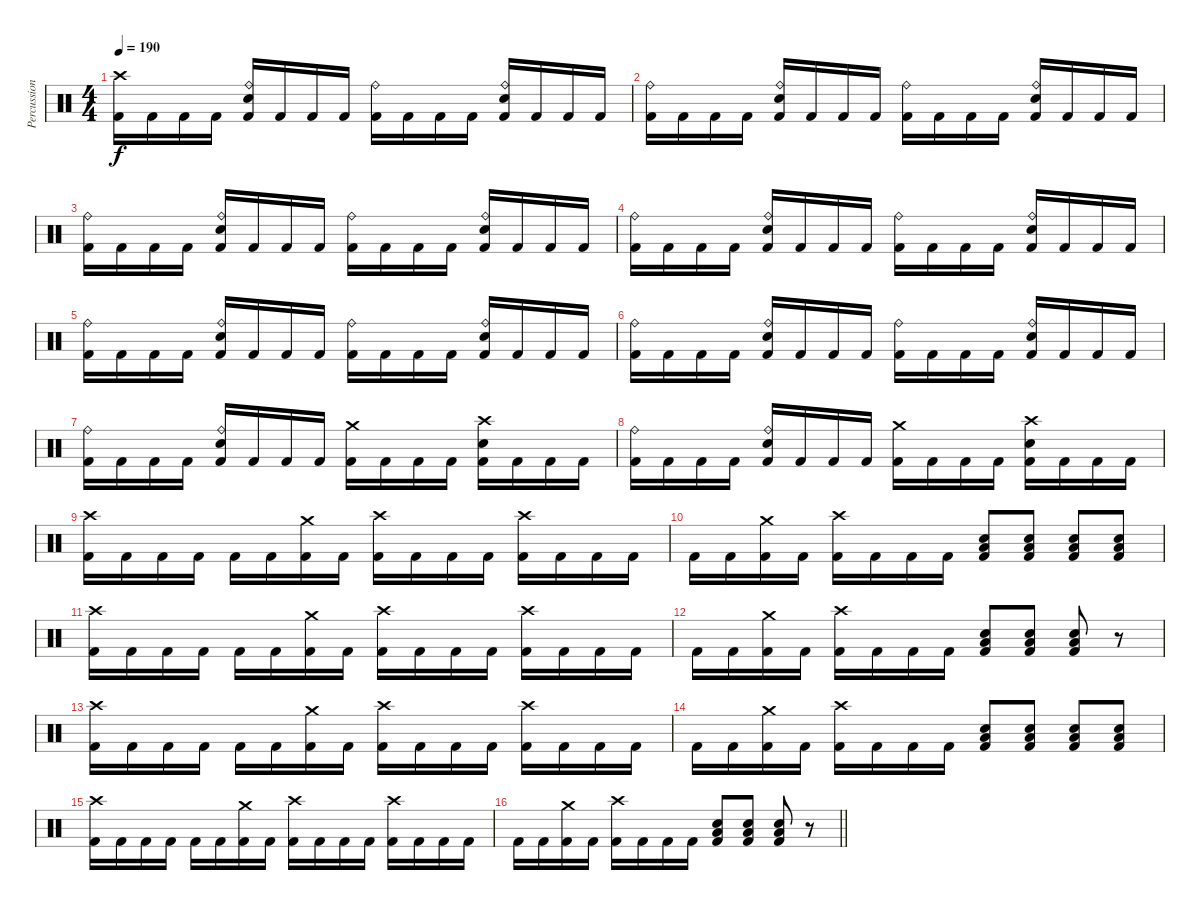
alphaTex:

\track ("Percussion" "Percussion") {instrument percussion}
\staff {score}
\articulation defaults
\ts (4 4)
\tempo 190
\clef neutral
\ks c
("Crash high (hit)" "Kick (hit) 2").16{dy f} "Kick (hit) 2".16 "Kick (hit) 2".16 "Kick (hit) 2".16 ("Ride (bell)" "Electric Snare (hit)" "Kick (hit) 2").16 "Kick (hit) 2".16 "Kick (hit) 2".16 "Kick (hit) 2".16 ("Ride (bell)" "Kick (hit) 2").16 "Kick (hit) 2".16 "Kick (hit) 2".16 "Kick (hit) 2".16 ("Ride (bell)" "Electric Snare (hit)" "Kick (hit) 2").16 "Kick (hit) 2".16 "Kick (hit) 2".16 "Kick (hit) 2".16 |
("Ride (bell)" "Kick (hit) 2").16 "Kick (hit) 2".16 "Kick (hit) 2".16 "Kick (hit) 2".16 ("Ride (bell)" "Electric Snare (hit)" "Kick (hit) 2").16 "Kick (hit) 2".16 "Kick (hit) 2".16 "Kick (hit) 2".16 ("Ride (bell)" "Kick (hit) 2").16 "Kick (hit) 2".16 "Kick (hit) 2".16 "Kick (hit) 2".16 ("Ride (bell)" "Electric Snare (hit)" "Kick (hit) 2").16 "Kick (hit) 2".16 "Kick (hit) 2".16 "Kick (hit) 2".16 |
("Ride (bell)" "Kick (hit) 2").16 "Kick (hit) 2".16 "Kick (hit) 2".16 "Kick (hit) 2".16 ("Ride (bell)" "Electric Snare (hit)" "Kick (hit) 2").16 "Kick (hit) 2".16 "Kick (hit) 2".16 "Kick (hit) 2".16 ("Ride (bell)" "Kick (hit) 2").16 "Kick (hit) 2".16 "Kick (hit) 2".16 "Kick (hit) 2".16 ("Ride (bell)" "Electric Snare (hit)" "Kick (hit) 2").16 "Kick (hit) 2".16 "Kick (hit) 2".16 "Kick (hit) 2".16 |
("Ride (bell)" "Kick (hit) 2").16 "Kick (hit) 2".16 "Kick (hit) 2".16 "Kick (hit) 2".16 ("Ride (bell)" "Electric Snare (hit)" "Kick (hit) 2").16 "Kick (hit) 2".16 "Kick (hit) 2".16 "Kick (hit) 2".16 ("Ride (bell)" "Kick (hit) 2").16 "Kick (hit) 2".16 "Kick (hit) 2".16 "Kick (hit) 2".16 ("Ride (bell)" "Electric Snare (hit)" "Kick (hit) 2").16 "Kick (hit) 2".16 "Kick (hit) 2".16 "Kick (hit) 2".16 |
("Ride (bell)" "Kick (hit) 2").16 "Kick (hit) 2".16 "Kick (hit) 2".16 "Kick (hit) 2".16 ("Ride (bell)" "Electric Snare (hit)" "Kick (hit) 2").16 "Kick (hit) 2".16 "Kick (hit) 2".16 "Kick (hit) 2".16 ("Ride (bell)" "Kick (hit) 2").16 "Kick (hit) 2".16 "Kick (hit) 2".16 "Kick (hit) 2".16 ("Ride (bell)" "Electric Snare (hit)" "Kick (hit) 2").16 "Kick (hit) 2".16 "Kick (hit) 2".16 "Kick (hit) 2".16 |
("Ride (bell)" "Kick (hit) 2").16 "Kick (hit) 2".16 "Kick (hit) 2".16 "Kick (hit) 2".16 ("Ride (bell)" "Electric Snare (hit)" "Kick (hit) 2").16 "Kick (hit) 2".16 "Kick (hit) 2".16 "Kick (hit) 2".16 ("Ride (bell)" "Kick (hit) 2").16 "Kick (hit) 2".16 "Kick (hit) 2".16 "Kick (hit) 2".16 ("Ride (bell)" "Electric Snare (hit)" "Kick (hit) 2").16 "Kick (hit) 2".16 "Kick (hit) 2".16 "Kick (hit) 2".16 |
("Ride (bell)" "Kick (hit) 2").16 "Kick (hit) 2".16 "Kick (hit) 2".16 "Kick (hit) 2".16 ("Ride (bell)" "Electric Snare (hit)" "Kick (hit) 2").16 "Kick (hit) 2".16 "Kick (hit) 2".16 "Kick (hit) 2".16 ("Crash medium (hit)" "Kick (hit) 2").16 "Kick (hit) 2".16 "Kick (hit) 2".16 "Kick (hit) 2".16 ("Crash high (hit)" "Electric Snare (hit)" "Kick (hit) 2").16 "Kick (hit) 2".16 "Kick (hit) 2".16 "Kick (hit) 2".16 |
("Ride (bell)" "Kick (hit) 2").16 "Kick (hit) 2".16 "Kick (hit) 2".16 "Kick (hit) 2".16 ("Ride (bell)" "Electric Snare (hit)" "Kick (hit) 2").16 "Kick (hit) 2".16 "Kick (hit) 2".16 "Kick (hit) 2".16 ("Crash medium (hit)" "Kick (hit) 2").16 "Kick (hit) 2".16 "Kick (hit) 2".16 "Kick (hit) 2".16 ("Crash high (hit)" "Electric Snare (hit)" "Kick (hit) 2").16 "Kick (hit) 2".16 "Kick (hit) 2".16 "Kick (hit) 2".16 |
("Crash high (hit)" "Kick (hit) 2").16 "Kick (hit) 2".16 "Kick (hit) 2".16 "Kick (hit) 2".16 "Kick (hit) 2".16 "Kick (hit) 2".16 ("Crash medium (hit)" "Kick (hit) 2").16 "Kick (hit) 2".16 ("Crash high (hit)" "Kick (hit) 2").16 "Kick (hit) 2".16 "Kick (hit) 2".16 "Kick (hit) 2".16 ("Crash high (hit)" "Kick (hit) 2").16 "Kick (hit) 2".16 "Kick (hit) 2".16 "Kick (hit) 2".16 |
"Kick (hit) 2".16 "Kick (hit) 2".16 ("Crash medium (hit)" "Kick (hit) 2").16 "Kick (hit) 2".16 ("Crash high (hit)" "Kick (hit) 2").16 "Kick (hit) 2".16 "Kick (hit) 2".16 "Kick (hit) 2".16 ("Electric Snare (hit)" "Low Floor Tom (hit)" "Kick (hit) 2").8 ("Electric Snare (hit)" "Low Floor Tom (hit)" "Kick (hit) 2").8 ("Electric Snare (hit)" "Low Floor Tom (hit)" "Kick (hit) 2").8 ("Electric Snare (hit)" "Low Floor Tom (hit)" "Kick (hit) 2").8 |
("Crash high (hit)" "Kick (hit) 2").16 "Kick (hit) 2".16 "Kick (hit) 2".16 "Kick (hit) 2".16 "Kick (hit) 2".16 "Kick (hit) 2".16 ("Crash medium (hit)" "Kick (hit) 2").16 "Kick (hit) 2".16 ("Crash high (hit)" "Kick (hit) 2").16 "Kick (hit) 2".16 "Kick (hit) 2".16 "Kick (hit) 2".16 ("Crash high (hit)" "Kick (hit) 2").16 "Kick (hit) 2".16 "Kick (hit) 2".16 "Kick (hit) 2".16 |
"Kick (hit) 2".16 "Kick (hit) 2".16 ("Crash medium (hit)" "Kick (hit) 2").16 "Kick (hit) 2".16 ("Crash high (hit)" "Kick (hit) 2").16 "Kick (hit) 2".16 "Kick (hit) 2".16 "Kick (hit) 2".16 ("Electric Snare (hit)" "Low Floor Tom (hit)" "Kick (hit) 2").8 ("Electric Snare (hit)" "Low Floor Tom (hit)" "Kick (hit) 2").8 ("Electric Snare (hit)" "Low Floor Tom (hit)" "Kick (hit) 2").8 r.8 |
("Crash high (hit)" "Kick (hit) 2").16 "Kick (hit) 2".16 "Kick (hit) 2".16 "Kick (hit) 2".16 "Kick (hit) 2".16 "Kick (hit) 2".16 ("Crash medium (hit)" "Kick (hit) 2").16 "Kick (hit) 2".16 ("Crash high (hit)" "Kick (hit) 2").16 "Kick (hit) 2".16 "Kick (hit) 2".16 "Kick (hit) 2".16 ("Crash high (hit)" "Kick (hit) 2").16 "Kick (hit) 2".16 "Kick (hit) 2".16 "Kick (hit) 2".16 |
"Kick (hit) 2".16 "Kick (hit) 2".16 ("Crash medium (hit)" "Kick (hit) 2").16 "Kick (hit) 2".16 ("Crash high (hit)" "Kick (hit) 2").16 "Kick (hit) 2".16 "Kick (hit) 2".16 "Kick (hit) 2".16 ("Electric Snare (hit)" "Low Floor Tom (hit)" "Kick (hit) 2").8 ("Electric Snare (hit)" "Low Floor Tom (hit)" "Kick (hit) 2").8 ("Electric Snare (hit)" "Low Floor Tom (hit)" "Kick (hit) 2").8 ("Electric Snare (hit)" "Low Floor Tom (hit)" "Kick (hit) 2").8 |
("Crash high (hit)" "Kick (hit) 2").16 "Kick (hit) 2".16 "Kick (hit) 2".16 "Kick (hit) 2".16 "Kick (hit) 2".16 "Kick (hit) 2".16 ("Crash medium (hit)" "Kick (hit) 2").16 "Kick (hit) 2".16 ("Crash high (hit)" "Kick (hit) 2").16 "Kick (hit) 2".16 "Kick (hit) 2".16 "Kick (hit) 2".16 ("Crash high (hit)" "Kick (hit) 2").16 "Kick (hit) 2".16 "Kick (hit) 2".16 "Kick (hit) 2".16 |
\barLineRight lightlight "Kick (hit) 2".16 "Kick (hit) 2".16
("Crash medium (hit)" "Kick (hit) 2").16 "Kick (hit) 2".16 ("Crash high (hit)" "Kick (hit) 2").16 "Kick (hit) 2".16 "Kick (hit) 2".16 "Kick (hit) 2".16 ("Electric Snare (hit)" "Low Floor Tom (hit)" "Kick (hit) 2").8 ("Electric Snare (hit)" "Low Floor Tom (hit)" "Kick (hit) 2").8 ("Electric Snare (hit)" "Low Floor Tom (hit)" "Kick (hit) 2").8 r.8
